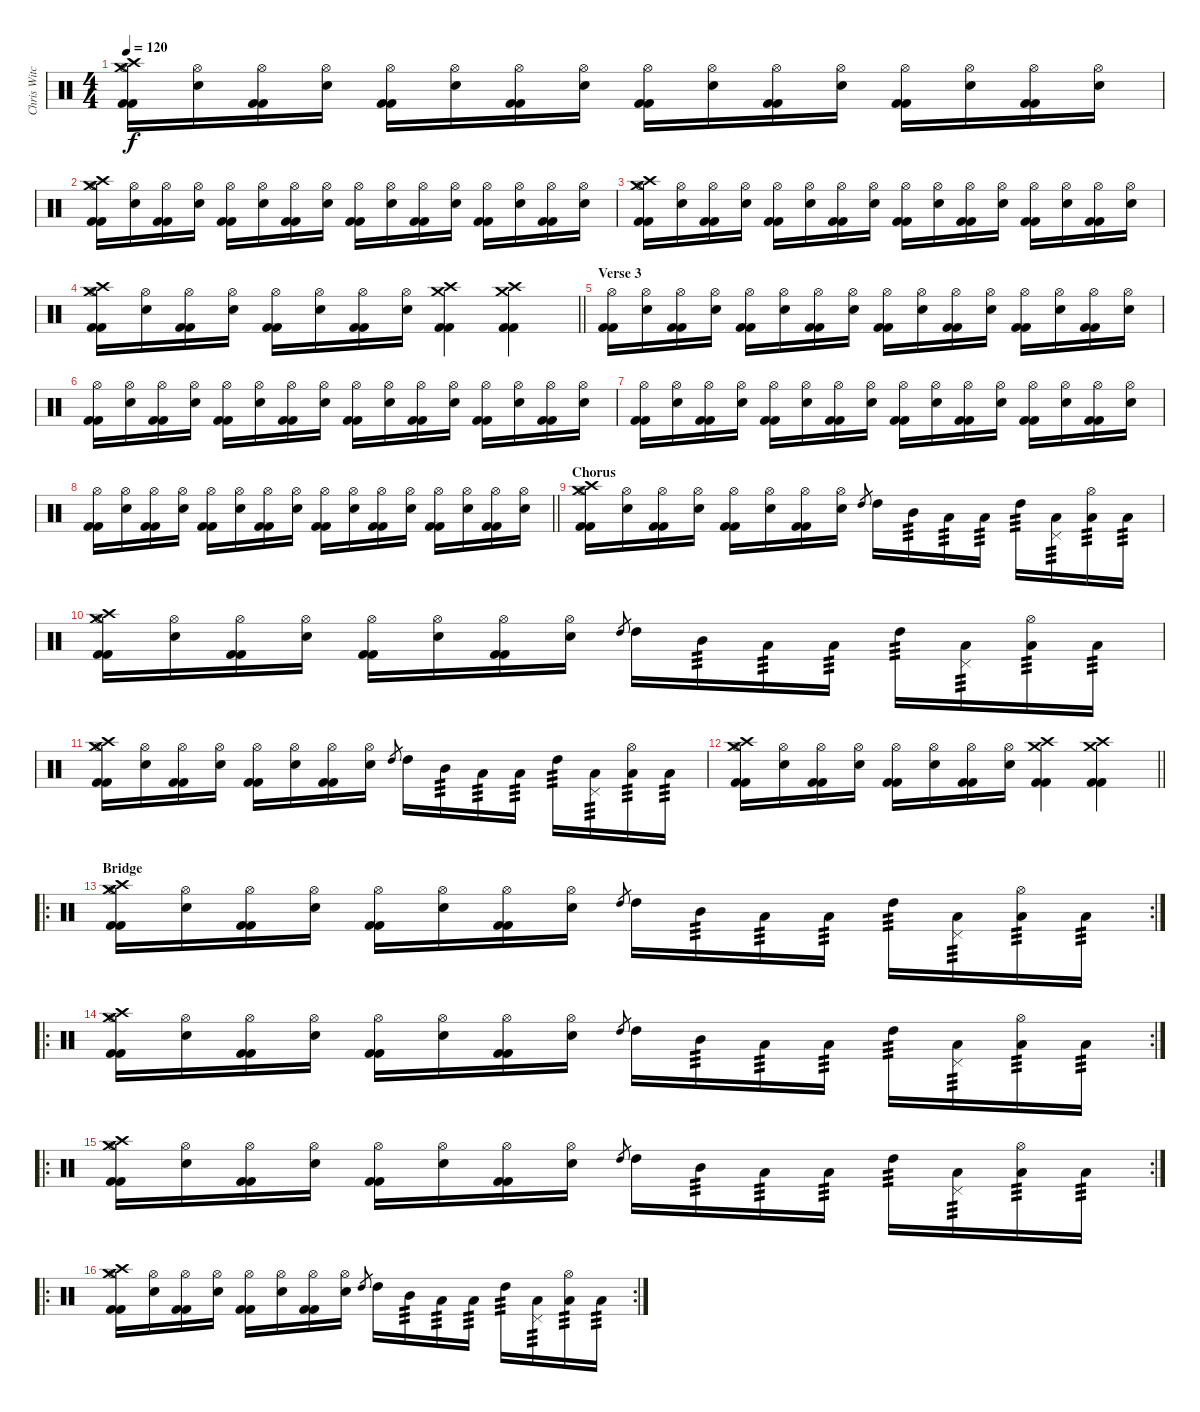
\track ("Chris Witchhunter (R.I.P.)" "Chris Witc") {instrument percussion}
\staff {score}
\articulation defaults
\ts (4 4)
\tempo 120
\clef neutral
\ks c
("Crash medium (hit)" "Crash high (hit)" "Hi-Hat (open)" "Kick (hit) 2" "Kick (hit) 2").16{dy f} ("Hi-Hat (open)" "Electric Snare (hit)").16 ("Hi-Hat (open)" "Kick (hit) 2" "Kick (hit) 2").16 ("Hi-Hat (open)" "Electric Snare (hit)").16 ("Hi-Hat (open)" "Kick (hit) 2" "Kick (hit) 2").16 ("Hi-Hat (open)" "Electric Snare (hit)").16 ("Hi-Hat (open)" "Kick (hit) 2" "Kick (hit) 2").16 ("Hi-Hat (open)" "Electric Snare (hit)").16 ("Hi-Hat (open)" "Kick (hit) 2" "Kick (hit) 2").16 ("Hi-Hat (open)" "Electric Snare (hit)").16 ("Hi-Hat (open)" "Kick (hit) 2" "Kick (hit) 2").16 ("Hi-Hat (open)" "Electric Snare (hit)").16 ("Hi-Hat (open)" "Kick (hit) 2" "Kick (hit) 2").16 ("Hi-Hat (open)" "Electric Snare (hit)").16 ("Hi-Hat (open)" "Kick (hit) 2" "Kick (hit) 2").16 ("Hi-Hat (open)" "Electric Snare (hit)").16 |
("Crash medium (hit)" "Crash high (hit)" "Hi-Hat (open)" "Kick (hit) 2" "Kick (hit) 2").16 ("Hi-Hat (open)" "Electric Snare (hit)").16 ("Hi-Hat (open)" "Kick (hit) 2" "Kick (hit) 2").16 ("Hi-Hat (open)" "Electric Snare (hit)").16 ("Hi-Hat (open)" "Kick (hit) 2" "Kick (hit) 2").16 ("Hi-Hat (open)" "Electric Snare (hit)").16 ("Hi-Hat (open)" "Kick (hit) 2" "Kick (hit) 2").16 ("Hi-Hat (open)" "Electric Snare (hit)").16 ("Hi-Hat (open)" "Kick (hit) 2" "Kick (hit) 2").16 ("Hi-Hat (open)" "Electric Snare (hit)").16 ("Hi-Hat (open)" "Kick (hit) 2" "Kick (hit) 2").16 ("Hi-Hat (open)" "Electric Snare (hit)").16 ("Hi-Hat (open)" "Kick (hit) 2" "Kick (hit) 2").16 ("Hi-Hat (open)" "Electric Snare (hit)").16 ("Hi-Hat (open)" "Kick (hit) 2" "Kick (hit) 2").16 ("Hi-Hat (open)" "Electric Snare (hit)").16 |
("Crash medium (hit)" "Crash high (hit)" "Hi-Hat (open)" "Kick (hit) 2" "Kick (hit) 2").16 ("Hi-Hat (open)" "Electric Snare (hit)").16 ("Hi-Hat (open)" "Kick (hit) 2" "Kick (hit) 2").16 ("Hi-Hat (open)" "Electric Snare (hit)").16 ("Hi-Hat (open)" "Kick (hit) 2" "Kick (hit) 2").16 ("Hi-Hat (open)" "Electric Snare (hit)").16 ("Hi-Hat (open)" "Kick (hit) 2" "Kick (hit) 2").16 ("Hi-Hat (open)" "Electric Snare (hit)").16 ("Hi-Hat (open)" "Kick (hit) 2" "Kick (hit) 2").16 ("Hi-Hat (open)" "Electric Snare (hit)").16 ("Hi-Hat (open)" "Kick (hit) 2" "Kick (hit) 2").16 ("Hi-Hat (open)" "Electric Snare (hit)").16 ("Hi-Hat (open)" "Kick (hit) 2" "Kick (hit) 2").16 ("Hi-Hat (open)" "Electric Snare (hit)").16 ("Hi-Hat (open)" "Kick (hit) 2" "Kick (hit) 2").16 ("Hi-Hat (open)" "Electric Snare (hit)").16 |
\barLineRight lightlight
("Crash medium (hit)" "Crash high (hit)" "Hi-Hat (open)" "Kick (hit) 2" "Kick (hit) 2").16 ("Hi-Hat (open)" "Electric Snare (hit)").16 ("Hi-Hat (open)" "Kick (hit) 2" "Kick (hit) 2").16 ("Hi-Hat (open)" "Electric Snare (hit)").16 ("Hi-Hat (open)" "Kick (hit) 2" "Kick (hit) 2").16 ("Hi-Hat (open)" "Electric Snare (hit)").16 ("Hi-Hat (open)" "Kick (hit) 2" "Kick (hit) 2").16 ("Hi-Hat (open)" "Electric Snare (hit)").16 ("Crash high (hit)" "Crash medium (hit)" "Kick (hit) 2" "Kick (hit) 2").4 ("Crash high (hit)" "Crash medium (hit)" "Kick (hit) 2" "Kick (hit) 2").4 |
\section ("" "Verse 3")
("Hi-Hat (open)" "Kick (hit) 2" "Kick (hit) 2").16 ("Hi-Hat (open)" "Electric Snare (hit)").16 ("Hi-Hat (open)" "Kick (hit) 2" "Kick (hit) 2").16 ("Hi-Hat (open)" "Electric Snare (hit)").16 ("Hi-Hat (open)" "Kick (hit) 2" "Kick (hit) 2").16 ("Hi-Hat (open)" "Electric Snare (hit)").16 ("Hi-Hat (open)" "Kick (hit) 2" "Kick (hit) 2").16 ("Hi-Hat (open)" "Electric Snare (hit)").16 ("Hi-Hat (open)" "Kick (hit) 2" "Kick (hit) 2").16 ("Hi-Hat (open)" "Electric Snare (hit)").16 ("Hi-Hat (open)" "Kick (hit) 2" "Kick (hit) 2").16 ("Hi-Hat (open)" "Electric Snare (hit)").16 ("Hi-Hat (open)" "Kick (hit) 2" "Kick (hit) 2").16 ("Hi-Hat (open)" "Electric Snare (hit)").16 ("Hi-Hat (open)" "Kick (hit) 2" "Kick (hit) 2").16 ("Hi-Hat (open)" "Electric Snare (hit)").16 |
("Hi-Hat (open)" "Kick (hit) 2" "Kick (hit) 2").16 ("Hi-Hat (open)" "Electric Snare (hit)").16 ("Hi-Hat (open)" "Kick (hit) 2" "Kick (hit) 2").16 ("Hi-Hat (open)" "Electric Snare (hit)").16 ("Hi-Hat (open)" "Kick (hit) 2" "Kick (hit) 2").16 ("Hi-Hat (open)" "Electric Snare (hit)").16 ("Hi-Hat (open)" "Kick (hit) 2" "Kick (hit) 2").16 ("Hi-Hat (open)" "Electric Snare (hit)").16 ("Hi-Hat (open)" "Kick (hit) 2" "Kick (hit) 2").16 ("Hi-Hat (open)" "Electric Snare (hit)").16 ("Hi-Hat (open)" "Kick (hit) 2" "Kick (hit) 2").16 ("Hi-Hat (open)" "Electric Snare (hit)").16 ("Hi-Hat (open)" "Kick (hit) 2" "Kick (hit) 2").16 ("Hi-Hat (open)" "Electric Snare (hit)").16 ("Hi-Hat (open)" "Kick (hit) 2" "Kick (hit) 2").16 ("Hi-Hat (open)" "Electric Snare (hit)").16 |
("Hi-Hat (open)" "Kick (hit) 2" "Kick (hit) 2").16 ("Hi-Hat (open)" "Electric Snare (hit)").16 ("Hi-Hat (open)" "Kick (hit) 2" "Kick (hit) 2").16 ("Hi-Hat (open)" "Electric Snare (hit)").16 ("Hi-Hat (open)" "Kick (hit) 2" "Kick (hit) 2").16 ("Hi-Hat (open)" "Electric Snare (hit)").16 ("Hi-Hat (open)" "Kick (hit) 2" "Kick (hit) 2").16 ("Hi-Hat (open)" "Electric Snare (hit)").16 ("Hi-Hat (open)" "Kick (hit) 2" "Kick (hit) 2").16 ("Hi-Hat (open)" "Electric Snare (hit)").16 ("Hi-Hat (open)" "Kick (hit) 2" "Kick (hit) 2").16 ("Hi-Hat (open)" "Electric Snare (hit)").16 ("Hi-Hat (open)" "Kick (hit) 2" "Kick (hit) 2").16 ("Hi-Hat (open)" "Electric Snare (hit)").16 ("Hi-Hat (open)" "Kick (hit) 2" "Kick (hit) 2").16 ("Hi-Hat (open)" "Electric Snare (hit)").16 |
\barLineRight lightlight
("Hi-Hat (open)" "Kick (hit) 2" "Kick (hit) 2").16 ("Hi-Hat (open)" "Electric Snare (hit)").16 ("Hi-Hat (open)" "Kick (hit) 2" "Kick (hit) 2").16 ("Hi-Hat (open)" "Electric Snare (hit)").16 ("Hi-Hat (open)" "Kick (hit) 2" "Kick (hit) 2").16 ("Hi-Hat (open)" "Electric Snare (hit)").16 ("Hi-Hat (open)" "Kick (hit) 2" "Kick (hit) 2").16 ("Hi-Hat (open)" "Electric Snare (hit)").16 ("Hi-Hat (open)" "Kick (hit) 2" "Kick (hit) 2").16 ("Hi-Hat (open)" "Electric Snare (hit)").16 ("Hi-Hat (open)" "Kick (hit) 2" "Kick (hit) 2").16 ("Hi-Hat (open)" "Electric Snare (hit)").16 ("Hi-Hat (open)" "Kick (hit) 2" "Kick (hit) 2").16 ("Hi-Hat (open)" "Electric Snare (hit)").16 ("Hi-Hat (open)" "Kick (hit) 2" "Kick (hit) 2").16 ("Hi-Hat (open)" "Electric Snare (hit)").16 |
\section ("" "Chorus")
("Crash medium (hit)" "Crash high (hit)" "Hi-Hat (open)" "Kick (hit) 2" "Kick (hit) 2").16 ("Hi-Hat (open)" "Electric Snare (hit)").16 ("Hi-Hat (open)" "Kick (hit) 2" "Kick (hit) 2").16 ("Hi-Hat (open)" "Electric Snare (hit)").16 ("Hi-Hat (open)" "Kick (hit) 2" "Kick (hit) 2").16 ("Hi-Hat (open)" "Electric Snare (hit)").16 ("Hi-Hat (open)" "Kick (hit) 2" "Kick (hit) 2").16 ("Hi-Hat (open)" "Electric Snare (hit)").16 "High Tom (hit)".8{gr} "High Tom (hit)".16 "Mid Tom (hit)".16{tp 3} "Low Tom (hit)".16{tp 3} "Low Floor Tom (hit)".16{tp 3} "High Tom (hit)".16{tp 3} ("Pedal Hi-Hat (hit)" "Low Tom (hit)").16{tp 3} ("Hi-Hat (open)" "Low Floor Tom (hit)").16{tp 3} "Low Tom (hit)".16{tp 3} |
("Crash medium (hit)" "Crash high (hit)" "Hi-Hat (open)" "Kick (hit) 2" "Kick (hit) 2").16 ("Hi-Hat (open)" "Electric Snare (hit)").16 ("Hi-Hat (open)" "Kick (hit) 2" "Kick (hit) 2").16 ("Hi-Hat (open)" "Electric Snare (hit)").16 ("Hi-Hat (open)" "Kick (hit) 2" "Kick (hit) 2").16 ("Hi-Hat (open)" "Electric Snare (hit)").16 ("Hi-Hat (open)" "Kick (hit) 2" "Kick (hit) 2").16 ("Hi-Hat (open)" "Electric Snare (hit)").16 "High Tom (hit)".8{gr} "High Tom (hit)".16 "Mid Tom (hit)".16{tp 3} "Low Tom (hit)".16{tp 3} "Low Floor Tom (hit)".16{tp 3} "High Tom (hit)".16{tp 3} ("Pedal Hi-Hat (hit)" "Low Tom (hit)").16{tp 3} ("Hi-Hat (open)" "Low Floor Tom (hit)").16{tp 3} "Low Tom (hit)".16{tp 3} |
("Crash medium (hit)" "Crash high (hit)" "Hi-Hat (open)" "Kick (hit) 2" "Kick (hit) 2").16 ("Hi-Hat (open)" "Electric Snare (hit)").16 ("Hi-Hat (open)" "Kick (hit) 2" "Kick (hit) 2").16 ("Hi-Hat (open)" "Electric Snare (hit)").16 ("Hi-Hat (open)" "Kick (hit) 2" "Kick (hit) 2").16 ("Hi-Hat (open)" "Electric Snare (hit)").16 ("Hi-Hat (open)" "Kick (hit) 2" "Kick (hit) 2").16 ("Hi-Hat (open)" "Electric Snare (hit)").16 "High Tom (hit)".8{gr} "High Tom (hit)".16 "Mid Tom (hit)".16{tp 3} "Low Tom (hit)".16{tp 3} "Low Floor Tom (hit)".16{tp 3} "High Tom (hit)".16{tp 3} ("Pedal Hi-Hat (hit)" "Low Tom (hit)").16{tp 3} ("Hi-Hat (open)" "Low Floor Tom (hit)").16{tp 3} "Low Tom (hit)".16{tp 3} |
\barLineRight lightlight
("Crash medium (hit)" "Crash high (hit)" "Hi-Hat (open)" "Kick (hit) 2" "Kick (hit) 2").16 ("Hi-Hat (open)" "Electric Snare (hit)").16 ("Hi-Hat (open)" "Kick (hit) 2" "Kick (hit) 2").16 ("Hi-Hat (open)" "Electric Snare (hit)").16 ("Hi-Hat (open)" "Kick (hit) 2" "Kick (hit) 2").16 ("Hi-Hat (open)" "Electric Snare (hit)").16 ("Hi-Hat (open)" "Kick (hit) 2" "Kick (hit) 2").16 ("Hi-Hat (open)" "Electric Snare (hit)").16 ("Crash high (hit)" "Crash medium (hit)" "Kick (hit) 2" "Kick (hit) 2").4 ("Crash high (hit)" "Crash medium (hit)" "Kick (hit) 2" "Kick (hit) 2").4 |
\ro
\rc 2
\section ("" "Bridge")
("Crash medium (hit)" "Crash high (hit)" "Hi-Hat (open)" "Kick (hit) 2" "Kick (hit) 2").16 ("Hi-Hat (open)" "Electric Snare (hit)").16 ("Hi-Hat (open)" "Kick (hit) 2" "Kick (hit) 2").16 ("Hi-Hat (open)" "Electric Snare (hit)").16 ("Hi-Hat (open)" "Kick (hit) 2" "Kick (hit) 2").16 ("Hi-Hat (open)" "Electric Snare (hit)").16 ("Hi-Hat (open)" "Kick (hit) 2" "Kick (hit) 2").16 ("Hi-Hat (open)" "Electric Snare (hit)").16 "High Tom (hit)".8{gr} "High Tom (hit)".16 "Mid Tom (hit)".16{tp 3} "Low Tom (hit)".16{tp 3} "Low Floor Tom (hit)".16{tp 3} "High Tom (hit)".16{tp 3} ("Pedal Hi-Hat (hit)" "Low Tom (hit)").16{tp 3} ("Hi-Hat (open)" "Low Floor Tom (hit)").16{tp 3} "Low Tom (hit)".16{tp 3} |
\ro
\rc 2
("Crash medium (hit)" "Crash high (hit)" "Hi-Hat (open)" "Kick (hit) 2" "Kick (hit) 2").16 ("Hi-Hat (open)" "Electric Snare (hit)").16 ("Hi-Hat (open)" "Kick (hit) 2" "Kick (hit) 2").16 ("Hi-Hat (open)" "Electric Snare (hit)").16 ("Hi-Hat (open)" "Kick (hit) 2" "Kick (hit) 2").16 ("Hi-Hat (open)" "Electric Snare (hit)").16 ("Hi-Hat (open)" "Kick (hit) 2" "Kick (hit) 2").16 ("Hi-Hat (open)" "Electric Snare (hit)").16 "High Tom (hit)".8{gr} "High Tom (hit)".16 "Mid Tom (hit)".16{tp 3} "Low Tom (hit)".16{tp 3} "Low Floor Tom (hit)".16{tp 3} "High Tom (hit)".16{tp 3} ("Pedal Hi-Hat (hit)" "Low Tom (hit)").16{tp 3} ("Hi-Hat (open)" "Low Floor Tom (hit)").16{tp 3} "Low Tom (hit)".16{tp 3} |
\ro
\rc 2
("Crash medium (hit)" "Crash high (hit)" "Hi-Hat (open)" "Kick (hit) 2" "Kick (hit) 2").16 ("Hi-Hat (open)" "Electric Snare (hit)").16 ("Hi-Hat (open)" "Kick (hit) 2" "Kick (hit) 2").16 ("Hi-Hat (open)" "Electric Snare (hit)").16 ("Hi-Hat (open)" "Kick (hit) 2" "Kick (hit) 2").16 ("Hi-Hat (open)" "Electric Snare (hit)").16 ("Hi-Hat (open)" "Kick (hit) 2" "Kick (hit) 2").16 ("Hi-Hat (open)" "Electric Snare (hit)").16 "High Tom (hit)".8{gr} "High Tom (hit)".16 "Mid Tom (hit)".16{tp 3} "Low Tom (hit)".16{tp 3} "Low Floor Tom (hit)".16{tp 3} "High Tom (hit)".16{tp 3} ("Pedal Hi-Hat (hit)" "Low Tom (hit)").16{tp 3} ("Hi-Hat (open)" "Low Floor Tom (hit)").16{tp 3} "Low Tom (hit)".16{tp 3} |
\ro
\rc 2
("Crash medium (hit)" "Crash high (hit)" "Hi-Hat (open)" "Kick (hit) 2" "Kick (hit) 2").16 ("Hi-Hat (open)" "Electric Snare (hit)").16 ("Hi-Hat (open)" "Kick (hit) 2" "Kick (hit) 2").16 ("Hi-Hat (open)" "Electric Snare (hit)").16 ("Hi-Hat (open)" "Kick (hit) 2" "Kick (hit) 2").16 ("Hi-Hat (open)" "Electric Snare (hit)").16 ("Hi-Hat (open)" "Kick (hit) 2" "Kick (hit) 2").16 ("Hi-Hat (open)" "Electric Snare (hit)").16 "High Tom (hit)".8{gr} "High Tom (hit)".16 "Mid Tom (hit)".16{tp 3} "Low Tom (hit)".16{tp 3} "Low Floor Tom (hit)".16{tp 3} "High Tom (hit)".16{tp 3} ("Pedal Hi-Hat (hit)" "Low Tom (hit)").16{tp 3} ("Hi-Hat (open)" "Low Floor Tom (hit)").16{tp 3} "Low Tom (hit)".16{tp 3}
